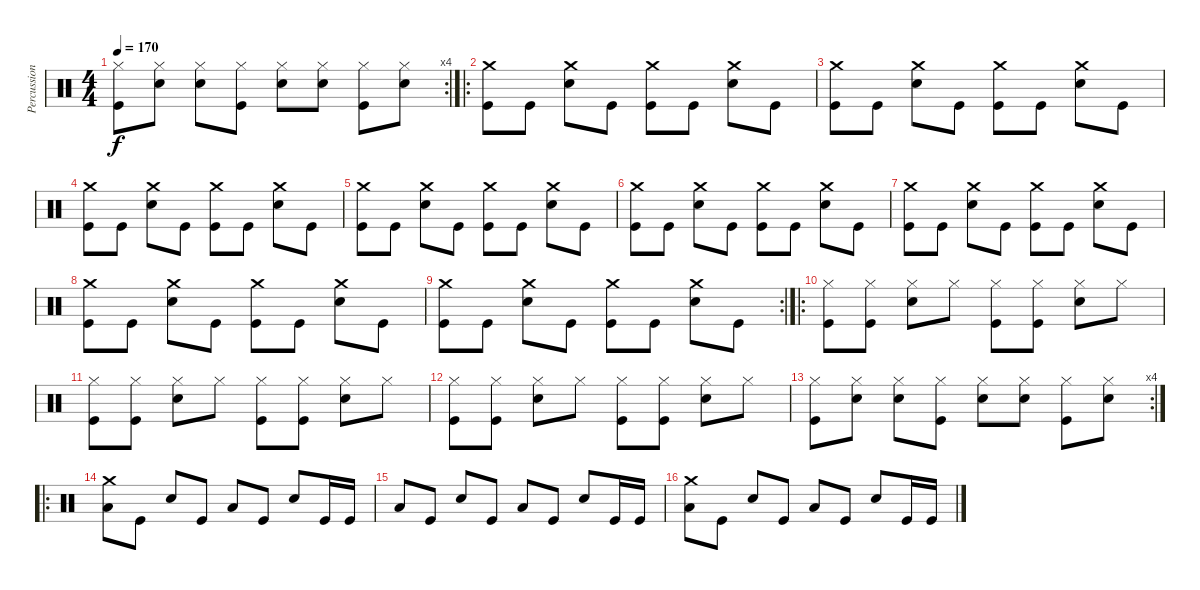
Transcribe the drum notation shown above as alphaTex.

\track ("Percussion" "Percussion") {instrument percussion}
\staff {score}
\articulation defaults
\rc 4
\ts (4 4)
\tempo 170
\clef neutral
\ks c
("Hi-Hat (closed)" "Kick (hit)").8{dy f} ("Hi-Hat (closed)" "Snare (hit) 2").8 ("Hi-Hat (closed)" "Snare (hit) 2").8 ("Hi-Hat (closed)" "Kick (hit)").8 ("Hi-Hat (closed)" "Snare (hit) 2").8 ("Hi-Hat (closed)" "Snare (hit) 2").8 ("Hi-Hat (closed)" "Kick (hit)").8 ("Hi-Hat (closed)" "Snare (hit) 2").8 |
\ro
("Crash medium (hit)" "Kick (hit)").8 "Kick (hit)".8 ("Crash medium (hit)" "Snare (hit) 2").8 "Kick (hit)".8 ("Crash medium (hit)" "Kick (hit)").8 "Kick (hit)".8 ("Crash medium (hit)" "Snare (hit) 2").8 "Kick (hit)".8 |
("Crash medium (hit)" "Kick (hit)").8 "Kick (hit)".8 ("Crash medium (hit)" "Snare (hit) 2").8 "Kick (hit)".8 ("Crash medium (hit)" "Kick (hit)").8 "Kick (hit)".8 ("Crash medium (hit)" "Snare (hit) 2").8 "Kick (hit)".8 |
("Crash medium (hit)" "Kick (hit)").8 "Kick (hit)".8 ("Crash medium (hit)" "Snare (hit) 2").8 "Kick (hit)".8 ("Crash medium (hit)" "Kick (hit)").8 "Kick (hit)".8 ("Crash medium (hit)" "Snare (hit) 2").8 "Kick (hit)".8 |
("Crash medium (hit)" "Kick (hit)").8 "Kick (hit)".8 ("Crash medium (hit)" "Snare (hit) 2").8 "Kick (hit)".8 ("Crash medium (hit)" "Kick (hit)").8 "Kick (hit)".8 ("Crash medium (hit)" "Snare (hit) 2").8 "Kick (hit)".8 |
("Crash medium (hit)" "Kick (hit)").8 "Kick (hit)".8 ("Crash medium (hit)" "Snare (hit) 2").8 "Kick (hit)".8 ("Crash medium (hit)" "Kick (hit)").8 "Kick (hit)".8 ("Crash medium (hit)" "Snare (hit) 2").8 "Kick (hit)".8 |
("Crash medium (hit)" "Kick (hit)").8 "Kick (hit)".8 ("Crash medium (hit)" "Snare (hit) 2").8 "Kick (hit)".8 ("Crash medium (hit)" "Kick (hit)").8 "Kick (hit)".8 ("Crash medium (hit)" "Snare (hit) 2").8 "Kick (hit)".8 |
("Crash medium (hit)" "Kick (hit)").8 "Kick (hit)".8 ("Crash medium (hit)" "Snare (hit) 2").8 "Kick (hit)".8 ("Crash medium (hit)" "Kick (hit)").8 "Kick (hit)".8 ("Crash medium (hit)" "Snare (hit) 2").8 "Kick (hit)".8 |
\rc 2
("Crash medium (hit)" "Kick (hit)").8 "Kick (hit)".8 ("Crash medium (hit)" "Snare (hit) 2").8 "Kick (hit)".8 ("Crash medium (hit)" "Kick (hit)").8 "Kick (hit)".8 ("Crash medium (hit)" "Snare (hit) 2").8 "Kick (hit)".8 |
\ro
("Hi-Hat (closed)" "Kick (hit)").8 ("Hi-Hat (closed)" "Kick (hit)").8 ("Hi-Hat (closed)" "Snare (hit) 2").8 "Hi-Hat (closed)".8 ("Hi-Hat (closed)" "Kick (hit)").8 ("Hi-Hat (closed)" "Kick (hit)").8 ("Hi-Hat (closed)" "Snare (hit) 2").8 "Hi-Hat (closed)".8 |
("Hi-Hat (closed)" "Kick (hit)").8 ("Hi-Hat (closed)" "Kick (hit)").8 ("Hi-Hat (closed)" "Snare (hit) 2").8 "Hi-Hat (closed)".8 ("Hi-Hat (closed)" "Kick (hit)").8 ("Hi-Hat (closed)" "Kick (hit)").8 ("Hi-Hat (closed)" "Snare (hit) 2").8 "Hi-Hat (closed)".8 |
("Hi-Hat (closed)" "Kick (hit)").8 ("Hi-Hat (closed)" "Kick (hit)").8 ("Hi-Hat (closed)" "Snare (hit) 2").8 "Hi-Hat (closed)".8 ("Hi-Hat (closed)" "Kick (hit)").8 ("Hi-Hat (closed)" "Kick (hit)").8 ("Hi-Hat (closed)" "Snare (hit) 2").8 "Hi-Hat (closed)".8 |
\rc 4
("Hi-Hat (closed)" "Kick (hit)").8 ("Hi-Hat (closed)" "Snare (hit) 2").8 ("Hi-Hat (closed)" "Snare (hit) 2").8 ("Hi-Hat (closed)" "Kick (hit)").8 ("Hi-Hat (closed)" "Snare (hit) 2").8 ("Hi-Hat (closed)" "Snare (hit) 2").8 ("Hi-Hat (closed)" "Kick (hit)").8 ("Hi-Hat (closed)" "Snare (hit) 2").8 |
\ro
("Crash medium (hit)" "Low Floor Tom (hit)").8 "Kick (hit)".8 "Snare (hit) 2".8 "Kick (hit)".8 "Low Floor Tom (hit)".8 "Kick (hit)".8 "Snare (hit) 2".8 "Kick (hit)".16 "Kick (hit)".16 |
"Low Floor Tom (hit)".8 "Kick (hit)".8 "Snare (hit) 2".8 "Kick (hit)".8 "Low Floor Tom (hit)".8 "Kick (hit)".8 "Snare (hit) 2".8 "Kick (hit)".16 "Kick (hit)".16 |
("Crash medium (hit)" "Low Floor Tom (hit)").8 "Kick (hit)".8 "Snare (hit) 2".8 "Kick (hit)".8 "Low Floor Tom (hit)".8 "Kick (hit)".8 "Snare (hit) 2".8 "Kick (hit)".16 "Kick (hit)".16
